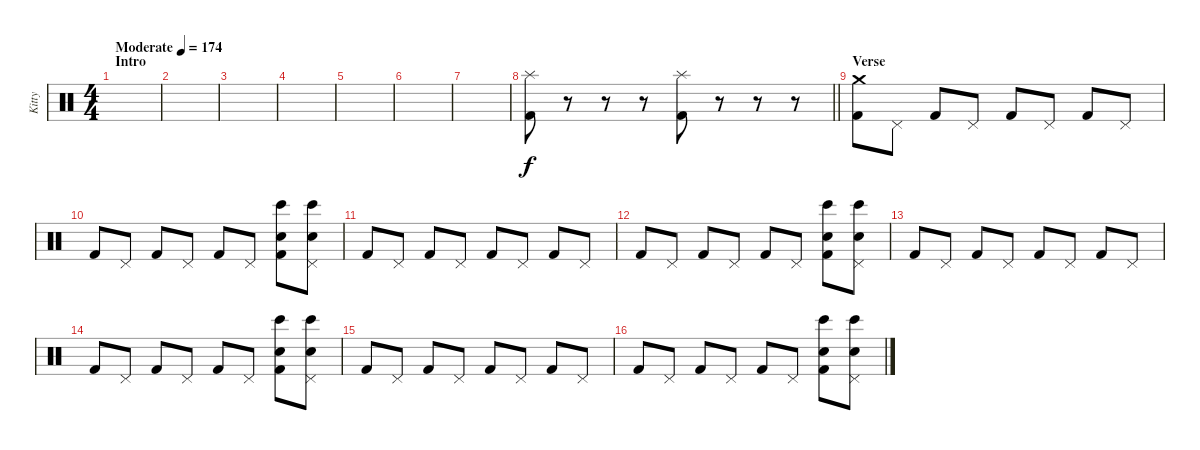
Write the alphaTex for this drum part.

\track ("Kitty" "Kitty") {instrument percussion}
\staff {score}
\articulation defaults
\ts (4 4)
\section ("" "Intro")
\tempo (174 "Moderate")
\clef neutral
\ks c
|
|
|
|
|
|
|
\barLineRight lightlight
("Splash (hit)" "Kick (hit) 2").8 r.8 r.8 r.8 ("Splash (hit)" "Kick (hit) 2").8 r.8 r.8 r.8 |
\section ("" "Verse")
("Crash medium (hit)" "Kick (hit) 2").8 "Pedal Hi-Hat (hit)".8 "Kick (hit) 2".8 "Pedal Hi-Hat (hit)".8 "Kick (hit) 2".8 "Pedal Hi-Hat (hit)".8 "Kick (hit) 2".8 "Pedal Hi-Hat (hit)".8 |
"Kick (hit) 2".8 "Pedal Hi-Hat (hit)".8 "Kick (hit) 2".8 "Pedal Hi-Hat (hit)".8 "Kick (hit) 2".8 "Pedal Hi-Hat (hit)".8 ("Hand Clap (hit)" "Bongo High (hit)" "Kick (hit) 2").8 ("Hand Clap (hit)" "Bongo High (hit)" "Pedal Hi-Hat (hit)").8 |
"Kick (hit) 2".8 "Pedal Hi-Hat (hit)".8 "Kick (hit) 2".8 "Pedal Hi-Hat (hit)".8 "Kick (hit) 2".8 "Pedal Hi-Hat (hit)".8 "Kick (hit) 2".8 "Pedal Hi-Hat (hit)".8 |
"Kick (hit) 2".8 "Pedal Hi-Hat (hit)".8 "Kick (hit) 2".8 "Pedal Hi-Hat (hit)".8 "Kick (hit) 2".8 "Pedal Hi-Hat (hit)".8 ("Hand Clap (hit)" "Bongo High (hit)" "Kick (hit) 2").8 ("Hand Clap (hit)" "Bongo High (hit)" "Pedal Hi-Hat (hit)").8 |
"Kick (hit) 2".8 "Pedal Hi-Hat (hit)".8 "Kick (hit) 2".8 "Pedal Hi-Hat (hit)".8 "Kick (hit) 2".8 "Pedal Hi-Hat (hit)".8 "Kick (hit) 2".8 "Pedal Hi-Hat (hit)".8 |
"Kick (hit) 2".8 "Pedal Hi-Hat (hit)".8 "Kick (hit) 2".8 "Pedal Hi-Hat (hit)".8 "Kick (hit) 2".8 "Pedal Hi-Hat (hit)".8 ("Hand Clap (hit)" "Bongo High (hit)" "Kick (hit) 2").8 ("Hand Clap (hit)" "Bongo High (hit)" "Pedal Hi-Hat (hit)").8 |
"Kick (hit) 2".8 "Pedal Hi-Hat (hit)".8 "Kick (hit) 2".8 "Pedal Hi-Hat (hit)".8 "Kick (hit) 2".8 "Pedal Hi-Hat (hit)".8 "Kick (hit) 2".8 "Pedal Hi-Hat (hit)".8 |
"Kick (hit) 2".8 "Pedal Hi-Hat (hit)".8 "Kick (hit) 2".8 "Pedal Hi-Hat (hit)".8 "Kick (hit) 2".8 "Pedal Hi-Hat (hit)".8 ("Hand Clap (hit)" "Bongo High (hit)" "Kick (hit) 2").8 ("Hand Clap (hit)" "Bongo High (hit)" "Pedal Hi-Hat (hit)").8
